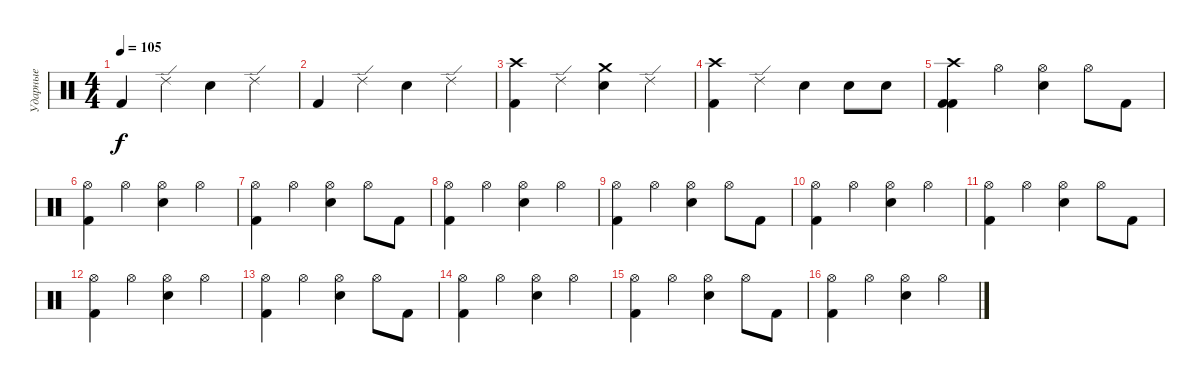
\track ("Ударные" "Ударные") {instrument percussion}
\staff {score}
\articulation defaults
\ts (4 4)
\tempo 105
\clef neutral
\ks c "Kick (hit) 2".4{dy f} "Ride (edge) 2".4 "Electric Snare (hit)".4 "Ride (edge) 2".4
|
"Kick (hit) 2".4 "Ride (edge) 2".4 "Electric Snare (hit)".4 "Ride (edge) 2".4 |
("Kick (hit) 2" "Crash high (hit)").4 "Ride (edge) 2".4 ("Electric Snare (hit)" "Crash medium (hit)").4 "Ride (edge) 2".4 |
("Crash high (hit)" "Kick (hit) 2").4 "Ride (edge) 2".4 "Electric Snare (hit)".4 "Electric Snare (hit)".8 "Electric Snare (hit)".8 |
("Crash high (hit)" "Kick (hit) 2" "Kick (hit) 2").4 "Hi-Hat (open)".4 ("Electric Snare (hit)" "Hi-Hat (open)").4 "Hi-Hat (open)".8 "Kick (hit) 2".8 |
("Kick (hit) 2" "Hi-Hat (open)").4 "Hi-Hat (open)".4 ("Hi-Hat (open)" "Electric Snare (hit)").4 "Hi-Hat (open)".4 |
("Hi-Hat (open)" "Kick (hit) 2").4 "Hi-Hat (open)".4 ("Electric Snare (hit)" "Hi-Hat (open)").4 "Hi-Hat (open)".8 "Kick (hit) 2".8 |
("Kick (hit) 2" "Hi-Hat (open)").4 "Hi-Hat (open)".4 ("Hi-Hat (open)" "Electric Snare (hit)").4 "Hi-Hat (open)".4 |
("Hi-Hat (open)" "Kick (hit) 2").4 "Hi-Hat (open)".4 ("Electric Snare (hit)" "Hi-Hat (open)").4 "Hi-Hat (open)".8 "Kick (hit) 2".8 |
("Kick (hit) 2" "Hi-Hat (open)").4 "Hi-Hat (open)".4 ("Hi-Hat (open)" "Electric Snare (hit)").4 "Hi-Hat (open)".4 |
("Hi-Hat (open)" "Kick (hit) 2").4 "Hi-Hat (open)".4 ("Electric Snare (hit)" "Hi-Hat (open)").4 "Hi-Hat (open)".8 "Kick (hit) 2".8 |
("Kick (hit) 2" "Hi-Hat (open)").4 "Hi-Hat (open)".4 ("Hi-Hat (open)" "Electric Snare (hit)").4 "Hi-Hat (open)".4 |
("Hi-Hat (open)" "Kick (hit) 2").4 "Hi-Hat (open)".4 ("Electric Snare (hit)" "Hi-Hat (open)").4 "Hi-Hat (open)".8 "Kick (hit) 2".8 |
("Kick (hit) 2" "Hi-Hat (open)").4 "Hi-Hat (open)".4 ("Hi-Hat (open)" "Electric Snare (hit)").4 "Hi-Hat (open)".4 |
("Hi-Hat (open)" "Kick (hit) 2").4 "Hi-Hat (open)".4 ("Electric Snare (hit)" "Hi-Hat (open)").4 "Hi-Hat (open)".8 "Kick (hit) 2".8 |
("Kick (hit) 2" "Hi-Hat (open)").4 "Hi-Hat (open)".4 ("Hi-Hat (open)" "Electric Snare (hit)").4 "Hi-Hat (open)".4
